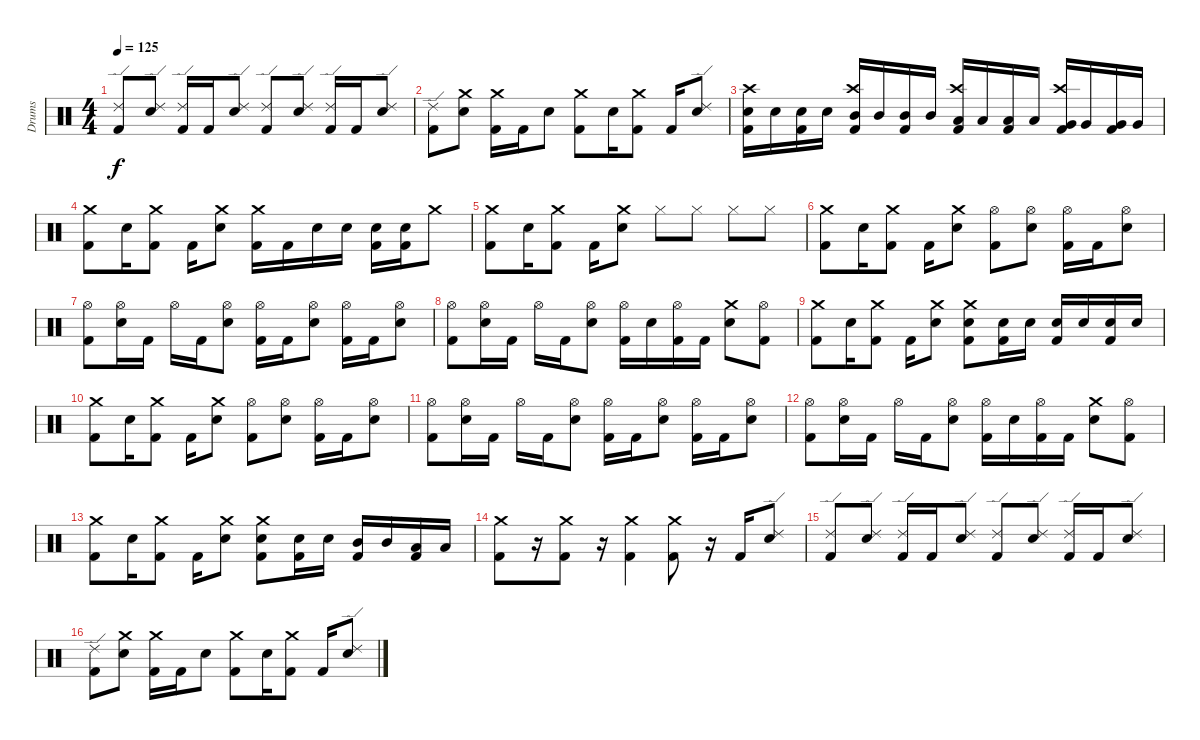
\track ("Drums" "Drums") {instrument percussion}
\staff {score}
\articulation defaults
\ts (4 4)
\tempo 125
\clef neutral
\ks c
("Ride (edge) 2" "Kick (hit) 2").8{dy f} ("Snare (hit) 2" "Ride (edge) 2").8 ("Ride (edge) 2" "Kick (hit) 2").16 "Kick (hit) 2".16 ("Snare (hit) 2" "Ride (edge) 2").8 ("Ride (edge) 2" "Kick (hit) 2").8 ("Snare (hit) 2" "Ride (edge) 2").8 ("Ride (edge) 2" "Kick (hit) 2").16 "Kick (hit) 2".16 ("Snare (hit) 2" "Ride (edge) 2").8 |
("Ride (edge) 2" "Kick (hit) 2").8 ("Crash medium (hit)" "Snare (hit) 2").8 ("Crash medium (hit)" "Kick (hit) 2").16 "Kick (hit) 2".16 "Snare (hit) 2".8 ("Crash medium (hit)" "Kick (hit) 2").8 "Snare (hit) 2".16 ("Crash medium (hit)" "Kick (hit) 2").8 "Kick (hit) 2".16 ("Snare (hit) 2" "Ride (edge) 2").8 |
("Crash high (hit)" "Snare (hit) 2" "Kick (hit) 2").16 "Snare (hit) 2".16 ("Snare (hit) 2" "Kick (hit) 2").16 "Snare (hit) 2".16 ("Crash high (hit)" "Mid Tom (hit)" "Kick (hit) 2").16 "Mid Tom (hit)".16 ("Mid Tom (hit)" "Kick (hit) 2").16 "Mid Tom (hit)".16 ("Crash high (hit)" "Low Tom (hit)" "Kick (hit) 2").16 "Low Tom (hit)".16 ("Low Tom (hit)" "Kick (hit) 2").16 "Low Tom (hit)".16 ("Crash high (hit)" "Very Low Tom (hit)" "Kick (hit) 2").16 "Very Low Tom (hit)".16 ("Very Low Tom (hit)" "Kick (hit) 2").16 "Very Low Tom (hit)".16 |
("Crash medium (hit)" "Kick (hit) 2").8 "Snare (hit) 2".16 ("Crash medium (hit)" "Kick (hit) 2").8 "Kick (hit) 2".16 ("Crash medium (hit)" "Snare (hit) 2").8 ("Crash medium (hit)" "Kick (hit) 2").16 "Kick (hit) 2".16 "Snare (hit) 2".16 "Snare (hit) 2".16 ("Snare (hit) 2" "Kick (hit) 2").16 ("Snare (hit) 2" "Kick (hit) 2").16 "Crash medium (hit)".8 |
("Crash medium (hit)" "Kick (hit) 2").8 "Snare (hit) 2".16 ("Crash medium (hit)" "Kick (hit) 2").8 "Kick (hit) 2".16 ("Crash medium (hit)" "Snare (hit) 2").8 "Hi-Hat (closed)".8 "Hi-Hat (closed)".8 "Hi-Hat (closed)".8 "Hi-Hat (closed)".8 |
("Crash medium (hit)" "Kick (hit) 2").8 "Snare (hit) 2".16 ("Crash medium (hit)" "Kick (hit) 2").8 "Kick (hit) 2".16 ("Crash medium (hit)" "Snare (hit) 2").8 ("Hi-Hat (open)" "Kick (hit) 2").8 ("Snare (hit) 2" "Hi-Hat (open)").8 ("Hi-Hat (open)" "Kick (hit) 2").16 "Kick (hit) 2".16 ("Snare (hit) 2" "Hi-Hat (open)").8 |
("Hi-Hat (open)" "Kick (hit) 2").8 ("Snare (hit) 2" "Hi-Hat (open)").16 "Kick (hit) 2".16 "Hi-Hat (open)".16 "Kick (hit) 2".16 ("Snare (hit) 2" "Hi-Hat (open)").8 ("Hi-Hat (open)" "Kick (hit) 2").16 "Kick (hit) 2".16 ("Snare (hit) 2" "Hi-Hat (open)").8 ("Hi-Hat (open)" "Kick (hit) 2").16 "Kick (hit) 2".16 ("Snare (hit) 2" "Hi-Hat (open)").8 |
("Hi-Hat (open)" "Kick (hit) 2").8 ("Snare (hit) 2" "Hi-Hat (open)").16 "Kick (hit) 2".16 "Hi-Hat (open)".16 "Kick (hit) 2".16 ("Snare (hit) 2" "Hi-Hat (open)").8 ("Hi-Hat (open)" "Kick (hit) 2").16 "Snare (hit) 2".16 ("Hi-Hat (open)" "Kick (hit) 2").16 "Kick (hit) 2".16 ("Crash medium (hit)" "Snare (hit) 2").8 ("Hi-Hat (open)" "Kick (hit) 2").8 |
("Crash medium (hit)" "Kick (hit) 2").8 "Snare (hit) 2".16 ("Crash medium (hit)" "Kick (hit) 2").8 "Kick (hit) 2".16 ("Crash medium (hit)" "Snare (hit) 2").8 ("Crash medium (hit)" "Snare (hit) 2" "Kick (hit) 2").8 ("Snare (hit) 2" "Kick (hit) 2").16 "Snare (hit) 2".16 ("Snare (hit) 2" "Kick (hit) 2").16 "Snare (hit) 2".16 ("Snare (hit) 2" "Kick (hit) 2").16 "Snare (hit) 2".16 |
("Crash medium (hit)" "Kick (hit) 2").8 "Snare (hit) 2".16 ("Crash medium (hit)" "Kick (hit) 2").8 "Kick (hit) 2".16 ("Crash medium (hit)" "Snare (hit) 2").8 ("Hi-Hat (open)" "Kick (hit) 2").8 ("Snare (hit) 2" "Hi-Hat (open)").8 ("Hi-Hat (open)" "Kick (hit) 2").16 "Kick (hit) 2".16 ("Snare (hit) 2" "Hi-Hat (open)").8 |
("Hi-Hat (open)" "Kick (hit) 2").8 ("Snare (hit) 2" "Hi-Hat (open)").16 "Kick (hit) 2".16 "Hi-Hat (open)".16 "Kick (hit) 2".16 ("Snare (hit) 2" "Hi-Hat (open)").8 ("Hi-Hat (open)" "Kick (hit) 2").16 "Kick (hit) 2".16 ("Snare (hit) 2" "Hi-Hat (open)").8 ("Hi-Hat (open)" "Kick (hit) 2").16 "Kick (hit) 2".16 ("Snare (hit) 2" "Hi-Hat (open)").8 |
("Hi-Hat (open)" "Kick (hit) 2").8 ("Snare (hit) 2" "Hi-Hat (open)").16 "Kick (hit) 2".16 "Hi-Hat (open)".16 "Kick (hit) 2".16 ("Snare (hit) 2" "Hi-Hat (open)").8 ("Hi-Hat (open)" "Kick (hit) 2").16 "Snare (hit) 2".16 ("Hi-Hat (open)" "Kick (hit) 2").16 "Kick (hit) 2".16 ("Crash medium (hit)" "Snare (hit) 2").8 ("Hi-Hat (open)" "Kick (hit) 2").8 |
("Crash medium (hit)" "Kick (hit) 2").8 "Snare (hit) 2".16 ("Crash medium (hit)" "Kick (hit) 2").8 "Kick (hit) 2".16 ("Crash medium (hit)" "Snare (hit) 2").8 ("Crash medium (hit)" "Snare (hit) 2" "Kick (hit) 2").8 ("Snare (hit) 2" "Kick (hit) 2").16 "Snare (hit) 2".16 ("Mid Tom (hit)" "Kick (hit) 2").16 "Mid Tom (hit)".16 ("Low Tom (hit)" "Kick (hit) 2").16 "Low Tom (hit)".16 |
("Crash medium (hit)" "Kick (hit) 2").8 r.16 ("Crash medium (hit)" "Kick (hit) 2").8 r.16 ("Crash medium (hit)" "Kick (hit) 2").4 ("Crash medium (hit)" "Kick (hit) 2").8 r.16 "Kick (hit) 2".16 ("Snare (hit) 2" "Ride (edge) 2").8 |
("Ride (edge) 2" "Kick (hit) 2").8 ("Snare (hit) 2" "Ride (edge) 2").8 ("Ride (edge) 2" "Kick (hit) 2").16 "Kick (hit) 2".16 ("Snare (hit) 2" "Ride (edge) 2").8 ("Ride (edge) 2" "Kick (hit) 2").8 ("Snare (hit) 2" "Ride (edge) 2").8 ("Ride (edge) 2" "Kick (hit) 2").16 "Kick (hit) 2".16 ("Snare (hit) 2" "Ride (edge) 2").8 |
("Ride (edge) 2" "Kick (hit) 2").8 ("Crash medium (hit)" "Snare (hit) 2").8 ("Crash medium (hit)" "Kick (hit) 2").16 "Kick (hit) 2".16 "Snare (hit) 2".8 ("Crash medium (hit)" "Kick (hit) 2").8 "Snare (hit) 2".16 ("Crash medium (hit)" "Kick (hit) 2").8 "Kick (hit) 2".16 ("Snare (hit) 2" "Ride (edge) 2").8
